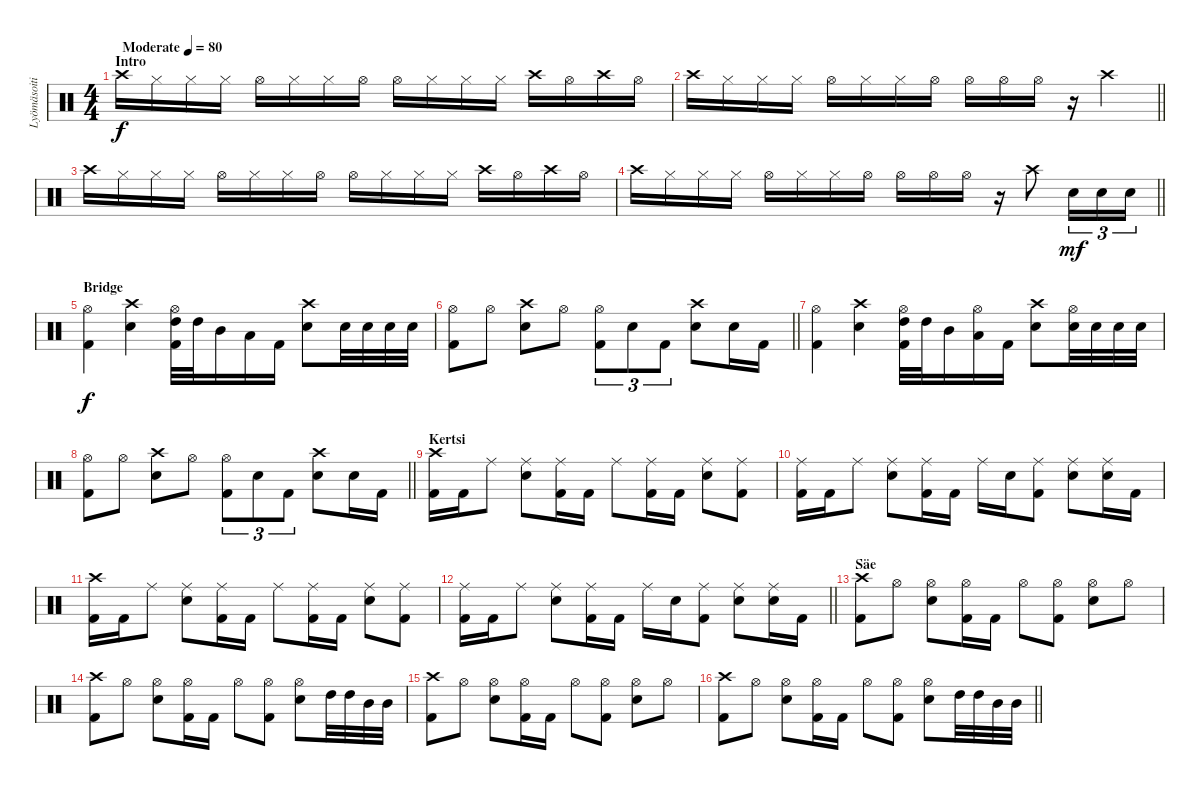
\track ("Lyömäsoitin" "Lyömäsoiti") {instrument percussion}
\staff {score}
\articulation defaults
\ts (4 4)
\section ("" "Intro")
\tempo (80 "Moderate")
\clef neutral
\ks c "Crash high (hit)".16{dy f} "Hi-Hat (closed)".16 "Hi-Hat (closed)".16 "Hi-Hat (closed)".16 "Hi-Hat (open)".16 "Hi-Hat (closed)".16 "Hi-Hat (closed)".16 "Hi-Hat (open)".16 "Hi-Hat (open)".16 "Hi-Hat (closed)".16 "Hi-Hat (closed)".16 "Hi-Hat (closed)".16 "Crash high (hit)".16 "Hi-Hat (open)".16 "Crash high (hit)".16 "Hi-Hat (open)".16
|
\barLineRight lightlight "Crash high (hit)".16 "Hi-Hat (closed)".16 "Hi-Hat (closed)".16 "Hi-Hat (closed)".16 "Hi-Hat (open)".16 "Hi-Hat (closed)".16 "Hi-Hat (closed)".16 "Hi-Hat (open)".16 "Hi-Hat (open)".16 "Hi-Hat (open)".16 "Hi-Hat (open)".16
r.16 "Crash high (hit)".4 |
"Crash high (hit)".16 "Hi-Hat (closed)".16 "Hi-Hat (closed)".16 "Hi-Hat (closed)".16 "Hi-Hat (open)".16 "Hi-Hat (closed)".16 "Hi-Hat (closed)".16 "Hi-Hat (open)".16 "Hi-Hat (open)".16 "Hi-Hat (closed)".16 "Hi-Hat (closed)".16 "Hi-Hat (closed)".16 "Crash high (hit)".16 "Hi-Hat (open)".16 "Crash high (hit)".16 "Hi-Hat (open)".16 |
\barLineRight lightlight "Crash high (hit)".16 "Hi-Hat (closed)".16 "Hi-Hat (closed)".16 "Hi-Hat (closed)".16 "Hi-Hat (open)".16 "Hi-Hat (closed)".16 "Hi-Hat (closed)".16 "Hi-Hat (open)".16 "Hi-Hat (open)".16 "Hi-Hat (open)".16 "Hi-Hat (open)".16
r.16 "Crash high (hit)".8 "Snare (hit) 2".16{tu (3 2) dy mf} "Snare (hit) 2".16{tu (3 2)} "Snare (hit) 2".16{tu (3 2)} |
\section ("" "Bridge")
("Hi-Hat (open)" "Kick (hit) 2").4{dy f} ("Crash high (hit)" "Snare (hit) 2").4 ("Hi-Hat (open)" "High Tom (hit)" "Kick (hit) 2").32 "High Tom (hit)".32 "Mid Tom (hit)".16 "Low Tom (hit)".16 "Kick (hit) 2".16 ("Crash high (hit)" "Snare (hit) 2").8 "Snare (hit) 2".32 "Snare (hit) 2".32 "Snare (hit) 2".32 "Snare (hit) 2".32 |
\barLineRight lightlight
("Hi-Hat (open)" "Kick (hit) 2").8 "Hi-Hat (open)".8 ("Crash high (hit)" "Snare (hit) 2").8 "Hi-Hat (open)".8 ("Hi-Hat (open)" "Kick (hit) 2").8{tu (3 2)} "Snare (hit) 2".8{tu (3 2)} "Kick (hit) 2".8{tu (3 2)} ("Crash high (hit)" "Snare (hit) 2").8 "Snare (hit) 2".16 "Kick (hit) 2".16 |
("Hi-Hat (open)" "Kick (hit) 2").4 ("Crash high (hit)" "Snare (hit) 2").4 ("Hi-Hat (open)" "High Tom (hit)" "Kick (hit) 2").32 "High Tom (hit)".32 "Mid Tom (hit)".16 ("Hi-Hat (open)" "Low Tom (hit)").16 "Kick (hit) 2".16 ("Crash high (hit)" "Snare (hit) 2").8 ("Hi-Hat (open)" "Snare (hit) 2").32 "Snare (hit) 2".32 "Snare (hit) 2".32 "Snare (hit) 2".32 |
\barLineRight lightlight
("Hi-Hat (open)" "Kick (hit) 2").8 "Hi-Hat (open)".8 ("Crash high (hit)" "Snare (hit) 2").8 "Hi-Hat (open)".8 ("Hi-Hat (open)" "Kick (hit) 2").8{tu (3 2)} "Snare (hit) 2".8{tu (3 2)} "Kick (hit) 2".8{tu (3 2)} ("Crash high (hit)" "Snare (hit) 2").8 "Snare (hit) 2".16 "Kick (hit) 2".16 |
\section ("" "Kertsi")
("Crash high (hit)" "Kick (hit) 2").16 "Kick (hit) 2".16 "Ride (middle)".8 ("Ride (middle)" "Snare (hit) 2").8 ("Ride (middle)" "Kick (hit) 2").16 "Kick (hit) 2".16 "Ride (middle)".8 ("Ride (middle)" "Kick (hit) 2").16 "Kick (hit) 2".16 ("Ride (middle)" "Snare (hit) 2").8 ("Ride (middle)" "Kick (hit) 2").8 |
("Ride (middle)" "Kick (hit) 2").16 "Kick (hit) 2".16 "Ride (middle)".8 ("Ride (middle)" "Snare (hit) 2").8 ("Ride (middle)" "Kick (hit) 2").16 "Kick (hit) 2".16 "Ride (middle)".16 "Snare (hit) 2".16 ("Ride (middle)" "Kick (hit) 2").8 ("Ride (middle)" "Snare (hit) 2").8 ("Ride (middle)" "Snare (hit) 2").16 "Kick (hit) 2".16 |
("Crash high (hit)" "Kick (hit) 2").16 "Kick (hit) 2".16 "Ride (middle)".8 ("Ride (middle)" "Snare (hit) 2").8 ("Ride (middle)" "Kick (hit) 2").16 "Kick (hit) 2".16 "Ride (middle)".8 ("Ride (middle)" "Kick (hit) 2").16 "Kick (hit) 2".16 ("Ride (middle)" "Snare (hit) 2").8 ("Ride (middle)" "Kick (hit) 2").8 |
\barLineRight lightlight
("Ride (middle)" "Kick (hit) 2").16 "Kick (hit) 2".16 "Ride (middle)".8 ("Ride (middle)" "Snare (hit) 2").8 ("Ride (middle)" "Kick (hit) 2").16 "Kick (hit) 2".16 "Ride (middle)".16 "Snare (hit) 2".16 ("Ride (middle)" "Kick (hit) 2").8 ("Ride (middle)" "Snare (hit) 2").8 ("Ride (middle)" "Snare (hit) 2").16 "Kick (hit) 2".16 |
\section ("" "Säe")
("Crash high (hit)" "Kick (hit) 2").8 "Hi-Hat (open)".8 ("Hi-Hat (open)" "Snare (hit) 2").8 ("Hi-Hat (open)" "Kick (hit) 2").16 "Kick (hit) 2".16 "Hi-Hat (open)".8 ("Hi-Hat (open)" "Kick (hit) 2").8 ("Hi-Hat (open)" "Snare (hit) 2").8 "Hi-Hat (open)".8 |
("Crash high (hit)" "Kick (hit) 2").8 "Hi-Hat (open)".8 ("Hi-Hat (open)" "Snare (hit) 2").8 ("Hi-Hat (open)" "Kick (hit) 2").16 "Kick (hit) 2".16 "Hi-Hat (open)".8 ("Hi-Hat (open)" "Kick (hit) 2").8 ("Hi-Hat (open)" "Snare (hit) 2").8 "High Tom (hit)".32 "High Tom (hit)".32 "Mid Tom (hit)".32 "Mid Tom (hit)".32 |
("Crash high (hit)" "Kick (hit) 2").8 "Hi-Hat (open)".8 ("Hi-Hat (open)" "Snare (hit) 2").8 ("Hi-Hat (open)" "Kick (hit) 2").16 "Kick (hit) 2".16 "Hi-Hat (open)".8 ("Hi-Hat (open)" "Kick (hit) 2").8 ("Hi-Hat (open)" "Snare (hit) 2").8 "Hi-Hat (open)".8 |
\barLineRight lightlight
("Crash high (hit)" "Kick (hit) 2").8 "Hi-Hat (open)".8 ("Hi-Hat (open)" "Snare (hit) 2").8 ("Hi-Hat (open)" "Kick (hit) 2").16 "Kick (hit) 2".16 "Hi-Hat (open)".8 ("Hi-Hat (open)" "Kick (hit) 2").8 ("Hi-Hat (open)" "Snare (hit) 2").8 "High Tom (hit)".32 "High Tom (hit)".32 "Mid Tom (hit)".32 "Mid Tom (hit)".32
